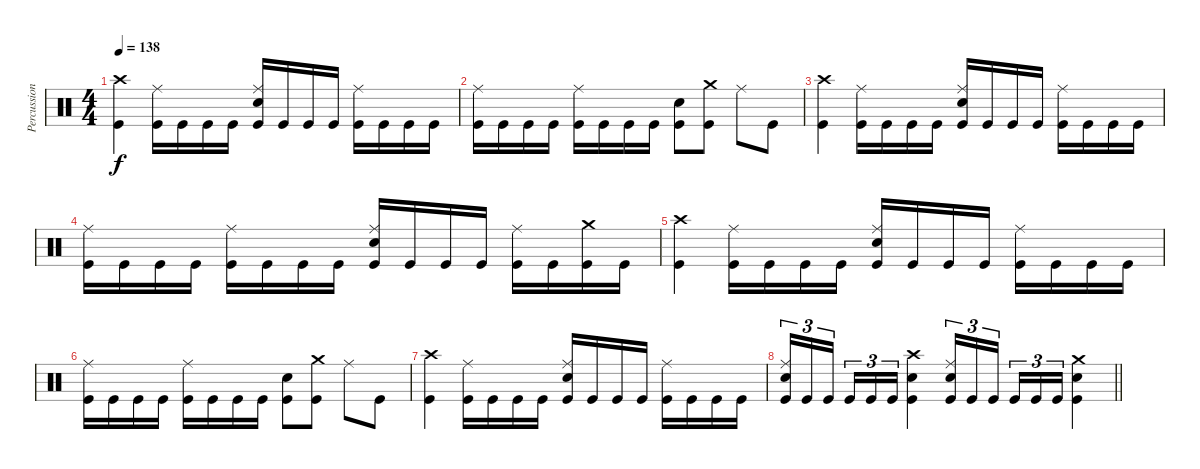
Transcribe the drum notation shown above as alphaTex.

\track ("Percussion" "Percussion") {instrument percussion}
\staff {score}
\articulation defaults
\ts (4 4)
\tempo 138
\clef neutral
\ks c
("Crash high (hit)" "Kick (hit)").4{dy f} ("Ride (middle)" "Kick (hit)").16 "Kick (hit)".16 "Kick (hit)".16 "Kick (hit)".16 ("Ride (middle)" "Electric Snare (hit)" "Kick (hit)").16 "Kick (hit)".16 "Kick (hit)".16 "Kick (hit)".16 ("Ride (middle)" "Kick (hit)").16 "Kick (hit)".16 "Kick (hit)".16 "Kick (hit)".16 |
("Ride (middle)" "Kick (hit)").16 "Kick (hit)".16 "Kick (hit)".16 "Kick (hit)".16 ("Ride (middle)" "Kick (hit)").16 "Kick (hit)".16 "Kick (hit)".16 "Kick (hit)".16 ("Electric Snare (hit)" "Kick (hit)").8 ("Crash medium (hit)" "Kick (hit)").8 "Ride (middle)".8 "Kick (hit)".8 |
("Crash high (hit)" "Kick (hit)").4 ("Ride (middle)" "Kick (hit)").16 "Kick (hit)".16 "Kick (hit)".16 "Kick (hit)".16 ("Ride (middle)" "Electric Snare (hit)" "Kick (hit)").16 "Kick (hit)".16 "Kick (hit)".16 "Kick (hit)".16 ("Ride (middle)" "Kick (hit)").16 "Kick (hit)".16 "Kick (hit)".16 "Kick (hit)".16 |
("Ride (middle)" "Kick (hit)").16 "Kick (hit)".16 "Kick (hit)".16 "Kick (hit)".16 ("Ride (middle)" "Kick (hit)").16 "Kick (hit)".16 "Kick (hit)".16 "Kick (hit)".16 ("Ride (middle)" "Electric Snare (hit)" "Kick (hit)").16 "Kick (hit)".16 "Kick (hit)".16 "Kick (hit)".16 ("Ride (middle)" "Kick (hit)").16 "Kick (hit)".16 ("Crash medium (hit)" "Kick (hit)").16 "Kick (hit)".16 |
("Crash high (hit)" "Kick (hit)").4 ("Ride (middle)" "Kick (hit)").16 "Kick (hit)".16 "Kick (hit)".16 "Kick (hit)".16 ("Ride (middle)" "Electric Snare (hit)" "Kick (hit)").16 "Kick (hit)".16 "Kick (hit)".16 "Kick (hit)".16 ("Ride (middle)" "Kick (hit)").16 "Kick (hit)".16 "Kick (hit)".16 "Kick (hit)".16 |
("Ride (middle)" "Kick (hit)").16 "Kick (hit)".16 "Kick (hit)".16 "Kick (hit)".16 ("Ride (middle)" "Kick (hit)").16 "Kick (hit)".16 "Kick (hit)".16 "Kick (hit)".16 ("Electric Snare (hit)" "Kick (hit)").8 ("Crash medium (hit)" "Kick (hit)").8 "Ride (middle)".8 "Kick (hit)".8 |
("Crash high (hit)" "Kick (hit)").4 ("Ride (middle)" "Kick (hit)").16 "Kick (hit)".16 "Kick (hit)".16 "Kick (hit)".16 ("Ride (middle)" "Electric Snare (hit)" "Kick (hit)").16 "Kick (hit)".16 "Kick (hit)".16 "Kick (hit)".16 ("Ride (middle)" "Kick (hit)").16 "Kick (hit)".16 "Kick (hit)".16 "Kick (hit)".16 |
\barLineRight lightlight
("Ride (middle)" "Electric Snare (hit)" "Kick (hit)").16{tu (3 2)} "Kick (hit)".16{tu (3 2)} "Kick (hit)".16{tu (3 2) beam splitsecondary} "Kick (hit)".16{tu (3 2)} "Kick (hit)".16{tu (3 2)} "Kick (hit)".16{tu (3 2)} ("Crash high (hit)" "Electric Snare (hit)" "Kick (hit)").4 ("Ride (middle)" "Electric Snare (hit)" "Kick (hit)").16{tu (3 2)} "Kick (hit)".16{tu (3 2)} "Kick (hit)".16{tu (3 2) beam splitsecondary} "Kick (hit)".16{tu (3 2)} "Kick (hit)".16{tu (3 2)} "Kick (hit)".16{tu (3 2)} ("Crash medium (hit)" "Electric Snare (hit)" "Kick (hit)").4
